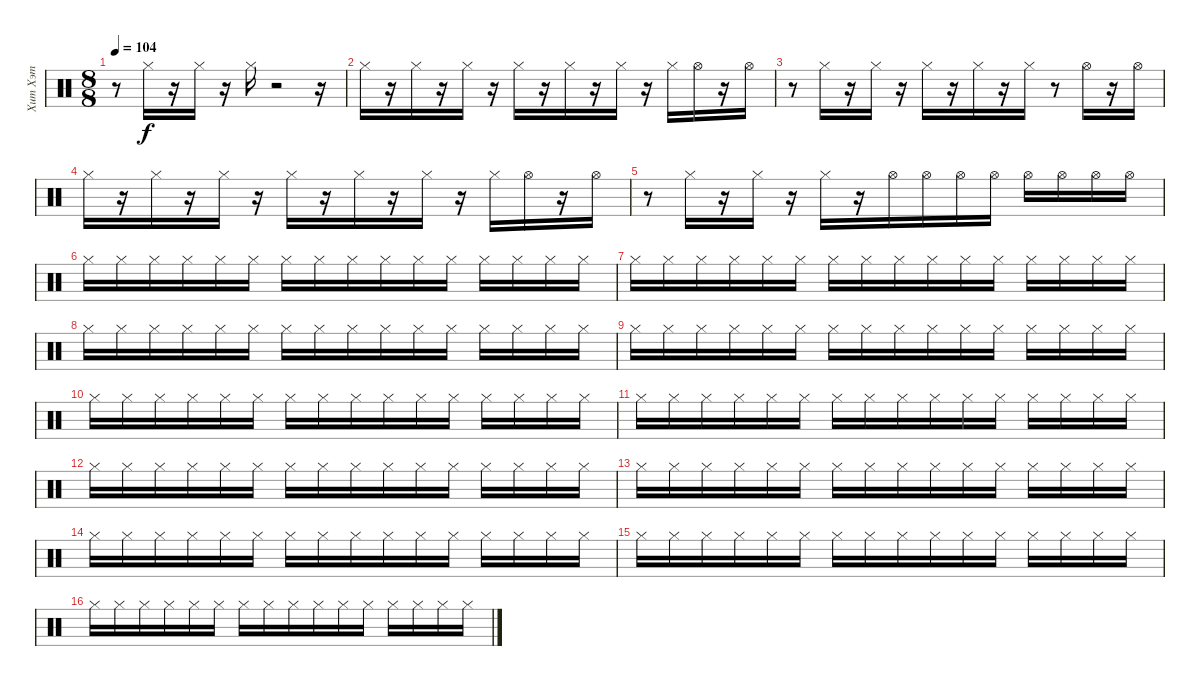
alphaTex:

\track ("Хит Хэт" "Хит Хэт") {instrument percussion}
\staff {score}
\articulation defaults
\ts (8 8)
\tempo 104
\clef neutral
\ks c
r.8{dy f} "Hi-Hat (closed)".16 r.16 "Hi-Hat (closed)".16 r.16 "Hi-Hat (closed)".16 r.2 r.16 |
"Hi-Hat (closed)".16 r.16 "Hi-Hat (closed)".16 r.16 "Hi-Hat (closed)".16 r.16 "Hi-Hat (closed)".16 r.16 "Hi-Hat (closed)".16 r.16 "Hi-Hat (closed)".16 r.16 "Hi-Hat (closed)".16 "Hi-Hat (open)".16 r.16 "Hi-Hat (open)".16 |
r.8 "Hi-Hat (closed)".16 r.16 "Hi-Hat (closed)".16 r.16 "Hi-Hat (closed)".16 r.16 "Hi-Hat (closed)".16 r.16 "Hi-Hat (closed)".16 r.8 "Hi-Hat (open)".16 r.16 "Hi-Hat (open)".16 |
"Hi-Hat (closed)".16 r.16 "Hi-Hat (closed)".16 r.16 "Hi-Hat (closed)".16 r.16 "Hi-Hat (closed)".16 r.16 "Hi-Hat (closed)".16 r.16 "Hi-Hat (closed)".16 r.16 "Hi-Hat (closed)".16 "Hi-Hat (open)".16 r.16 "Hi-Hat (open)".16 |
r.8 "Hi-Hat (closed)".16 r.16 "Hi-Hat (closed)".16 r.16 "Hi-Hat (closed)".16 r.16 "Hi-Hat (open)".16 "Hi-Hat (open)".16 "Hi-Hat (open)".16 "Hi-Hat (open)".16 "Hi-Hat (open)".16 "Hi-Hat (open)".16 "Hi-Hat (open)".16 "Hi-Hat (open)".16 |
"Hi-Hat (closed)".16 "Hi-Hat (closed)".16 "Hi-Hat (closed)".16 "Hi-Hat (closed)".16 "Hi-Hat (closed)".16 "Hi-Hat (closed)".16 "Hi-Hat (closed)".16 "Hi-Hat (closed)".16 "Hi-Hat (closed)".16 "Hi-Hat (closed)".16 "Hi-Hat (closed)".16 "Hi-Hat (closed)".16 "Hi-Hat (closed)".16 "Hi-Hat (closed)".16 "Hi-Hat (closed)".16 "Hi-Hat (closed)".16 |
"Hi-Hat (closed)".16 "Hi-Hat (closed)".16 "Hi-Hat (closed)".16 "Hi-Hat (closed)".16 "Hi-Hat (closed)".16 "Hi-Hat (closed)".16 "Hi-Hat (closed)".16 "Hi-Hat (closed)".16 "Hi-Hat (closed)".16 "Hi-Hat (closed)".16 "Hi-Hat (closed)".16 "Hi-Hat (closed)".16 "Hi-Hat (closed)".16 "Hi-Hat (closed)".16 "Hi-Hat (closed)".16 "Hi-Hat (closed)".16 |
"Hi-Hat (closed)".16 "Hi-Hat (closed)".16 "Hi-Hat (closed)".16 "Hi-Hat (closed)".16 "Hi-Hat (closed)".16 "Hi-Hat (closed)".16 "Hi-Hat (closed)".16 "Hi-Hat (closed)".16 "Hi-Hat (closed)".16 "Hi-Hat (closed)".16 "Hi-Hat (closed)".16 "Hi-Hat (closed)".16 "Hi-Hat (closed)".16 "Hi-Hat (closed)".16 "Hi-Hat (closed)".16 "Hi-Hat (closed)".16 |
"Hi-Hat (closed)".16 "Hi-Hat (closed)".16 "Hi-Hat (closed)".16 "Hi-Hat (closed)".16 "Hi-Hat (closed)".16 "Hi-Hat (closed)".16 "Hi-Hat (closed)".16 "Hi-Hat (closed)".16 "Hi-Hat (closed)".16 "Hi-Hat (closed)".16 "Hi-Hat (closed)".16 "Hi-Hat (closed)".16 "Hi-Hat (closed)".16 "Hi-Hat (closed)".16 "Hi-Hat (closed)".16 "Hi-Hat (closed)".16 |
"Hi-Hat (closed)".16 "Hi-Hat (closed)".16 "Hi-Hat (closed)".16 "Hi-Hat (closed)".16 "Hi-Hat (closed)".16 "Hi-Hat (closed)".16 "Hi-Hat (closed)".16 "Hi-Hat (closed)".16 "Hi-Hat (closed)".16 "Hi-Hat (closed)".16 "Hi-Hat (closed)".16 "Hi-Hat (closed)".16 "Hi-Hat (closed)".16 "Hi-Hat (closed)".16 "Hi-Hat (closed)".16 "Hi-Hat (closed)".16 |
"Hi-Hat (closed)".16 "Hi-Hat (closed)".16 "Hi-Hat (closed)".16 "Hi-Hat (closed)".16 "Hi-Hat (closed)".16 "Hi-Hat (closed)".16 "Hi-Hat (closed)".16 "Hi-Hat (closed)".16 "Hi-Hat (closed)".16 "Hi-Hat (closed)".16 "Hi-Hat (closed)".16 "Hi-Hat (closed)".16 "Hi-Hat (closed)".16 "Hi-Hat (closed)".16 "Hi-Hat (closed)".16 "Hi-Hat (closed)".16 |
"Hi-Hat (closed)".16 "Hi-Hat (closed)".16 "Hi-Hat (closed)".16 "Hi-Hat (closed)".16 "Hi-Hat (closed)".16 "Hi-Hat (closed)".16 "Hi-Hat (closed)".16 "Hi-Hat (closed)".16 "Hi-Hat (closed)".16 "Hi-Hat (closed)".16 "Hi-Hat (closed)".16 "Hi-Hat (closed)".16 "Hi-Hat (closed)".16 "Hi-Hat (closed)".16 "Hi-Hat (closed)".16 "Hi-Hat (closed)".16 |
"Hi-Hat (closed)".16 "Hi-Hat (closed)".16 "Hi-Hat (closed)".16 "Hi-Hat (closed)".16 "Hi-Hat (closed)".16 "Hi-Hat (closed)".16 "Hi-Hat (closed)".16 "Hi-Hat (closed)".16 "Hi-Hat (closed)".16 "Hi-Hat (closed)".16 "Hi-Hat (closed)".16 "Hi-Hat (closed)".16 "Hi-Hat (closed)".16 "Hi-Hat (closed)".16 "Hi-Hat (closed)".16 "Hi-Hat (closed)".16 |
"Hi-Hat (closed)".16 "Hi-Hat (closed)".16 "Hi-Hat (closed)".16 "Hi-Hat (closed)".16 "Hi-Hat (closed)".16 "Hi-Hat (closed)".16 "Hi-Hat (closed)".16 "Hi-Hat (closed)".16 "Hi-Hat (closed)".16 "Hi-Hat (closed)".16 "Hi-Hat (closed)".16 "Hi-Hat (closed)".16 "Hi-Hat (closed)".16 "Hi-Hat (closed)".16 "Hi-Hat (closed)".16 "Hi-Hat (closed)".16 |
"Hi-Hat (closed)".16 "Hi-Hat (closed)".16 "Hi-Hat (closed)".16 "Hi-Hat (closed)".16 "Hi-Hat (closed)".16 "Hi-Hat (closed)".16 "Hi-Hat (closed)".16 "Hi-Hat (closed)".16 "Hi-Hat (closed)".16 "Hi-Hat (closed)".16 "Hi-Hat (closed)".16 "Hi-Hat (closed)".16 "Hi-Hat (closed)".16 "Hi-Hat (closed)".16 "Hi-Hat (closed)".16 "Hi-Hat (closed)".16 |
"Hi-Hat (closed)".16 "Hi-Hat (closed)".16 "Hi-Hat (closed)".16 "Hi-Hat (closed)".16 "Hi-Hat (closed)".16 "Hi-Hat (closed)".16 "Hi-Hat (closed)".16 "Hi-Hat (closed)".16 "Hi-Hat (closed)".16 "Hi-Hat (closed)".16 "Hi-Hat (closed)".16 "Hi-Hat (closed)".16 "Hi-Hat (closed)".16 "Hi-Hat (closed)".16 "Hi-Hat (closed)".16 "Hi-Hat (closed)".16
